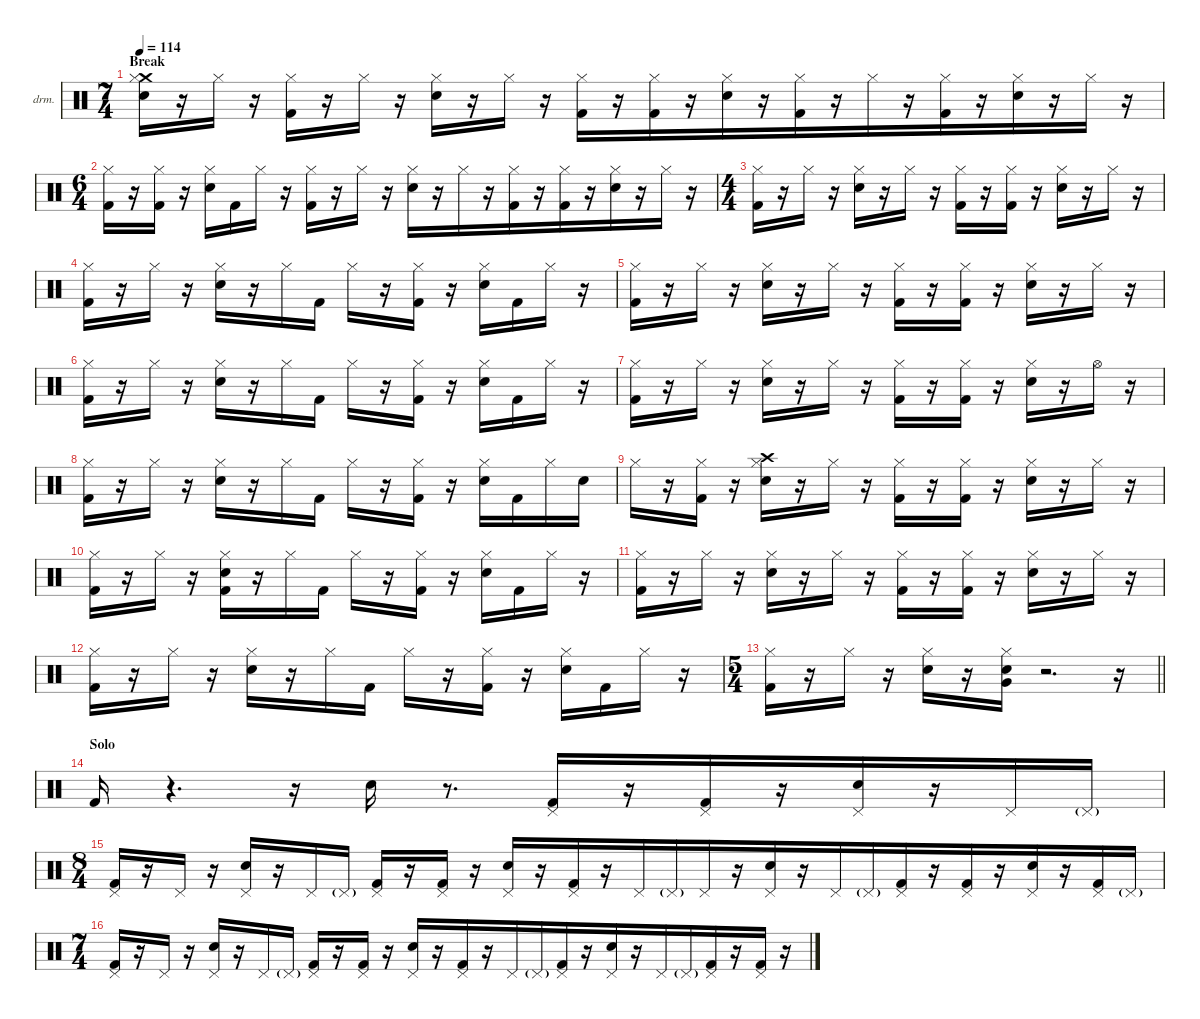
\defaultSystemsLayout 4
\hideDynamics
\bracketExtendMode nobrackets
\firstSystemTrackNameOrientation horizontal
\otherSystemsTrackNameOrientation horizontal
\track ("Drums" "drm.") {instrument percussion}
\staff {score}
\articulation defaults
\ts (7 4)
\beaming (8 2 2 2 8)
\section ("" "Break")
\tempo 114
\clef neutral
\ks c
("Crash medium (hit)" "Hi-Hat (closed)" "Snare (hit) 2").16{dy f} r.16 "Hi-Hat (closed)".16 r.16 ("Hi-Hat (closed)" "Kick (hit) 2").16 r.16 "Hi-Hat (closed)".16 r.16 ("Hi-Hat (closed)" "Snare (hit) 2").16 r.16 "Hi-Hat (closed)".16 r.16 ("Hi-Hat (closed)" "Kick (hit) 2").16 r.16 ("Hi-Hat (closed)" "Kick (hit) 2").16 r.16 ("Hi-Hat (closed)" "Snare (hit) 2").16 r.16 ("Hi-Hat (closed)" "Kick (hit) 2").16 r.16 "Hi-Hat (closed)".16 r.16 ("Hi-Hat (closed)" "Kick (hit) 2").16 r.16 ("Hi-Hat (closed)" "Snare (hit) 2").16 r.16 "Hi-Hat (closed)".16 r.16 |
\ts (6 4)
\beaming (8 2 2 2 6)
("Hi-Hat (closed)" "Kick (hit) 2").16 r.16 ("Hi-Hat (closed)" "Kick (hit) 2").16 r.16 ("Hi-Hat (closed)" "Snare (hit) 2").16 "Kick (hit) 2".16 "Hi-Hat (closed)".16 r.16 ("Hi-Hat (closed)" "Kick (hit) 2").16 r.16 "Hi-Hat (closed)".16 r.16 ("Hi-Hat (closed)" "Snare (hit) 2").16 r.16 "Hi-Hat (closed)".16 r.16 ("Hi-Hat (closed)" "Kick (hit) 2").16 r.16 ("Hi-Hat (closed)" "Kick (hit) 2").16 r.16 ("Hi-Hat (closed)" "Snare (hit) 2").16 r.16 "Hi-Hat (closed)".16 r.16 |
\ts (4 4)
\beaming (8 2 2 2 2)
("Hi-Hat (closed)" "Kick (hit) 2").16 r.16 "Hi-Hat (closed)".16 r.16 ("Hi-Hat (closed)" "Snare (hit) 2").16 r.16 "Hi-Hat (closed)".16 r.16 ("Hi-Hat (closed)" "Kick (hit) 2").16 r.16 ("Hi-Hat (closed)" "Kick (hit) 2").16 r.16 ("Hi-Hat (closed)" "Snare (hit) 2").16 r.16 "Hi-Hat (closed)".16 r.16 |
("Hi-Hat (closed)" "Kick (hit) 2").16 r.16 "Hi-Hat (closed)".16 r.16 ("Hi-Hat (closed)" "Snare (hit) 2").16 r.16 "Hi-Hat (closed)".16 "Kick (hit) 2".16 "Hi-Hat (closed)".16 r.16 ("Hi-Hat (closed)" "Kick (hit) 2").16 r.16 ("Hi-Hat (closed)" "Snare (hit) 2").16 "Kick (hit) 2".16 "Hi-Hat (closed)".16 r.16 |
("Hi-Hat (closed)" "Kick (hit) 2").16 r.16 "Hi-Hat (closed)".16 r.16 ("Hi-Hat (closed)" "Snare (hit) 2").16 r.16 "Hi-Hat (closed)".16 r.16 ("Hi-Hat (closed)" "Kick (hit) 2").16 r.16 ("Hi-Hat (closed)" "Kick (hit) 2").16 r.16 ("Hi-Hat (closed)" "Snare (hit) 2").16 r.16 "Hi-Hat (closed)".16 r.16 |
("Hi-Hat (closed)" "Kick (hit) 2").16 r.16 "Hi-Hat (closed)".16 r.16 ("Hi-Hat (closed)" "Snare (hit) 2").16 r.16 "Hi-Hat (closed)".16 "Kick (hit) 2".16 "Hi-Hat (closed)".16 r.16 ("Hi-Hat (closed)" "Kick (hit) 2").16 r.16 ("Hi-Hat (closed)" "Snare (hit) 2").16 "Kick (hit) 2".16 "Hi-Hat (closed)".16 r.16 |
("Hi-Hat (closed)" "Kick (hit) 2").16 r.16 "Hi-Hat (closed)".16 r.16 ("Hi-Hat (closed)" "Snare (hit) 2").16 r.16 "Hi-Hat (closed)".16 r.16 ("Hi-Hat (closed)" "Kick (hit) 2").16 r.16 ("Hi-Hat (closed)" "Kick (hit) 2").16 r.16 ("Hi-Hat (closed)" "Snare (hit) 2").16 r.16 "Hi-Hat (open)".16 r.16 |
("Hi-Hat (closed)" "Kick (hit) 2").16 r.16 "Hi-Hat (closed)".16 r.16 ("Hi-Hat (closed)" "Snare (hit) 2").16 r.16 "Hi-Hat (closed)".16 "Kick (hit) 2".16 "Hi-Hat (closed)".16 r.16 ("Hi-Hat (closed)" "Kick (hit) 2").16 r.16 ("Hi-Hat (closed)" "Snare (hit) 2").16 "Kick (hit) 2".16 "Hi-Hat (closed)".16 "Snare (hit) 2".16 |
"Hi-Hat (closed)".16 r.16 ("Hi-Hat (closed)" "Kick (hit) 2").16 r.16 ("Crash high (hit)" "Hi-Hat (closed)" "Snare (hit) 2").16 r.16 "Hi-Hat (closed)".16 r.16 ("Hi-Hat (closed)" "Kick (hit) 2").16 r.16 ("Hi-Hat (closed)" "Kick (hit) 2").16 r.16 ("Hi-Hat (closed)" "Snare (hit) 2").16 r.16 "Hi-Hat (closed)".16 r.16 |
("Hi-Hat (closed)" "Kick (hit) 2").16 r.16 "Hi-Hat (closed)".16 r.16 ("Hi-Hat (closed)" "Snare (hit) 2" "Kick (hit) 2").16 r.16 "Hi-Hat (closed)".16 "Kick (hit) 2".16 "Hi-Hat (closed)".16 r.16 ("Hi-Hat (closed)" "Kick (hit) 2").16 r.16 ("Hi-Hat (closed)" "Snare (hit) 2").16 "Kick (hit) 2".16 "Hi-Hat (closed)".16 r.16 |
("Hi-Hat (closed)" "Kick (hit) 2").16 r.16 "Hi-Hat (closed)".16 r.16 ("Hi-Hat (closed)" "Snare (hit) 2").16 r.16 "Hi-Hat (closed)".16 r.16 ("Hi-Hat (closed)" "Kick (hit) 2").16 r.16 ("Hi-Hat (closed)" "Kick (hit) 2").16 r.16 ("Hi-Hat (closed)" "Snare (hit) 2").16 r.16 "Hi-Hat (closed)".16 r.16 |
("Hi-Hat (closed)" "Kick (hit) 2").16 r.16 "Hi-Hat (closed)".16 r.16 ("Hi-Hat (closed)" "Snare (hit) 2").16 r.16 "Hi-Hat (closed)".16 "Kick (hit) 2".16 "Hi-Hat (closed)".16 r.16 ("Hi-Hat (closed)" "Kick (hit) 2").16 r.16 ("Hi-Hat (closed)" "Snare (hit) 2").16 "Kick (hit) 2".16 "Hi-Hat (closed)".16 r.16 |
\ts (5 4)
\beaming (8 2 2 2 4)
\barLineRight lightlight
("Hi-Hat (closed)" "Kick (hit) 2").16 r.16 "Hi-Hat (closed)".16 r.16 ("Hi-Hat (closed)" "Snare (hit) 2").16 r.16 ("Hi-Hat (closed)" "Very Low Tom (hit)" "Snare (hit) 2").16 r.2{d} r.16 |
\section ("" "Solo")
"Kick (hit) 2".16 r.4{d} r.16 "Snare (hit) 2".16 r.8{d} ("Pedal Hi-Hat (hit)" "Kick (hit) 2").16 r.16 ("Pedal Hi-Hat (hit)" "Kick (hit) 2").16 r.16 ("Pedal Hi-Hat (hit)" "Snare (hit) 2").16 r.16 "Pedal Hi-Hat (hit)".16 "Pedal Hi-Hat (hit)"{g}.16{dy mf} |
\ts (8 4)
\beaming (8 2 2 2 10)
("Pedal Hi-Hat (hit)" "Kick (hit) 2").16{dy f} r.16 "Pedal Hi-Hat (hit)".16 r.16 ("Pedal Hi-Hat (hit)" "Snare (hit) 2").16 r.16 "Pedal Hi-Hat (hit)".16 "Pedal Hi-Hat (hit)"{g}.16{dy mf} ("Pedal Hi-Hat (hit)" "Kick (hit) 2").16{dy f} r.16 ("Pedal Hi-Hat (hit)" "Kick (hit) 2").16 r.16 ("Pedal Hi-Hat (hit)" "Snare (hit) 2").16 r.16 ("Pedal Hi-Hat (hit)" "Kick (hit) 2").16 r.16 "Pedal Hi-Hat (hit)".16 "Pedal Hi-Hat (hit)"{g}.16{dy mf} "Pedal Hi-Hat (hit)".16{dy f} r.16 ("Pedal Hi-Hat (hit)" "Snare (hit) 2").16 r.16 "Pedal Hi-Hat (hit)".16 "Pedal Hi-Hat (hit)"{g}.16{dy mf} ("Pedal Hi-Hat (hit)" "Kick (hit) 2").16{dy f} r.16 ("Pedal Hi-Hat (hit)" "Kick (hit) 2").16 r.16 ("Pedal Hi-Hat (hit)" "Snare (hit) 2").16 r.16 ("Pedal Hi-Hat (hit)" "Kick (hit) 2").16 "Pedal Hi-Hat (hit)"{g}.16{dy mf} |
\ts (7 4)
\beaming (8 2 2 2 8)
("Pedal Hi-Hat (hit)" "Kick (hit) 2").16{dy f} r.16 "Pedal Hi-Hat (hit)".16 r.16 ("Pedal Hi-Hat (hit)" "Snare (hit) 2").16 r.16 "Pedal Hi-Hat (hit)".16 "Pedal Hi-Hat (hit)"{g}.16{dy mf} ("Pedal Hi-Hat (hit)" "Kick (hit) 2").16{dy f} r.16 ("Pedal Hi-Hat (hit)" "Kick (hit) 2").16 r.16 ("Pedal Hi-Hat (hit)" "Snare (hit) 2").16 r.16 ("Pedal Hi-Hat (hit)" "Kick (hit) 2").16 r.16 "Pedal Hi-Hat (hit)".16 "Pedal Hi-Hat (hit)"{g}.16{dy mf} ("Pedal Hi-Hat (hit)" "Kick (hit) 2").16{dy f} r.16 ("Pedal Hi-Hat (hit)" "Snare (hit) 2").16 r.16 "Pedal Hi-Hat (hit)".16 "Pedal Hi-Hat (hit)"{g}.16{dy mf} ("Pedal Hi-Hat (hit)" "Kick (hit) 2").16{dy f} r.16 ("Pedal Hi-Hat (hit)" "Kick (hit) 2").16 r.16
